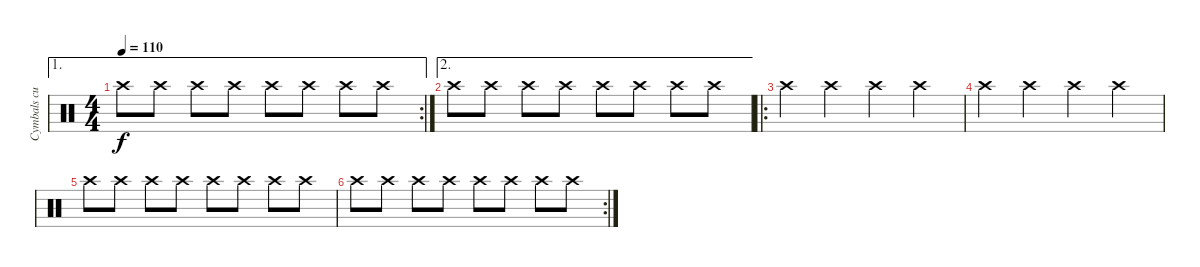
\track ("Cymbals cuz I'm lazy" "Cymbals cu") {instrument percussion}
\staff {score}
\articulation defaults
\ae 1
\rc 2
\ts (4 4)
\tempo 110
\clef neutral
\ks c "Crash high (hit)".8{dy f} "Crash high (hit)".8 "Crash high (hit)".8 "Crash high (hit)".8 "Crash high (hit)".8 "Crash high (hit)".8 "Crash high (hit)".8 "Crash high (hit)".8
|
\ae 2 "Crash high (hit)".8 "Crash high (hit)".8 "Crash high (hit)".8 "Crash high (hit)".8 "Crash high (hit)".8 "Crash high (hit)".8 "Crash high (hit)".8 "Crash high (hit)".8
|
\ro "Crash high (hit)".4 "Crash high (hit)".4 "Crash high (hit)".4 "Crash high (hit)".4
|
"Crash high (hit)".4 "Crash high (hit)".4 "Crash high (hit)".4 "Crash high (hit)".4 |
"Crash high (hit)".8 "Crash high (hit)".8 "Crash high (hit)".8 "Crash high (hit)".8 "Crash high (hit)".8 "Crash high (hit)".8 "Crash high (hit)".8 "Crash high (hit)".8 |
\rc 2 "Crash high (hit)".8 "Crash high (hit)".8 "Crash high (hit)".8 "Crash high (hit)".8 "Crash high (hit)".8 "Crash high (hit)".8 "Crash high (hit)".8 "Crash high (hit)".8
